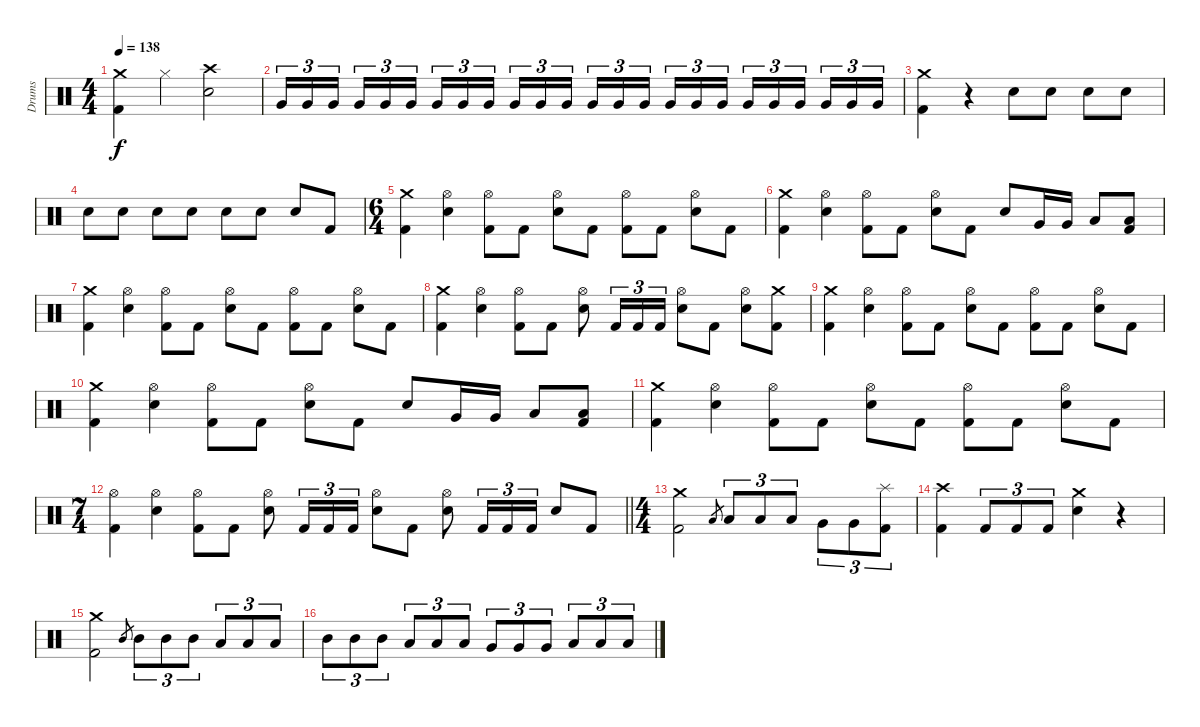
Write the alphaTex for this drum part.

\track ("Drums" "Drums") {instrument percussion}
\staff {score}
\articulation defaults
\ts (4 4)
\tempo 138
\clef neutral
\ks c
("Crash medium (hit)" "Kick (hit) 2").4{dy f} "Hi-Hat (closed)".4 ("Crash high (hit)" "Electric Snare (hit)").2 |
"Very Low Tom (hit)".16{tu (3 2)} "Very Low Tom (hit)".16{tu (3 2)} "Very Low Tom (hit)".16{tu (3 2) beam splitsecondary} "Very Low Tom (hit)".16{tu (3 2)} "Very Low Tom (hit)".16{tu (3 2)} "Very Low Tom (hit)".16{tu (3 2)} "Very Low Tom (hit)".16{tu (3 2)} "Very Low Tom (hit)".16{tu (3 2)} "Very Low Tom (hit)".16{tu (3 2) beam splitsecondary} "Very Low Tom (hit)".16{tu (3 2)} "Very Low Tom (hit)".16{tu (3 2)} "Very Low Tom (hit)".16{tu (3 2)} "Very Low Tom (hit)".16{tu (3 2)} "Very Low Tom (hit)".16{tu (3 2)} "Very Low Tom (hit)".16{tu (3 2) beam splitsecondary} "Very Low Tom (hit)".16{tu (3 2)} "Very Low Tom (hit)".16{tu (3 2)} "Very Low Tom (hit)".16{tu (3 2)} "Very Low Tom (hit)".16{tu (3 2)} "Very Low Tom (hit)".16{tu (3 2)} "Very Low Tom (hit)".16{tu (3 2) beam splitsecondary} "Very Low Tom (hit)".16{tu (3 2)} "Very Low Tom (hit)".16{tu (3 2)} "Very Low Tom (hit)".16{tu (3 2)} |
("Crash medium (hit)" "Kick (hit) 2").4 r.4 "Electric Snare (hit)".8 "Electric Snare (hit)".8 "Electric Snare (hit)".8 "Electric Snare (hit)".8 |
"Electric Snare (hit)".8 "Electric Snare (hit)".8 "Electric Snare (hit)".8 "Electric Snare (hit)".8 "Electric Snare (hit)".8 "Electric Snare (hit)".8 "Electric Snare (hit)".8 "Kick (hit) 2".8 |
\ts (6 4)
("Crash medium (hit)" "Kick (hit) 2").4 ("Hi-Hat (open)" "Electric Snare (hit)").4 ("Hi-Hat (open)" "Kick (hit) 2").8 "Kick (hit) 2".8 ("Hi-Hat (open)" "Electric Snare (hit)").8 "Kick (hit) 2".8 ("Hi-Hat (open)" "Kick (hit) 2").8 "Kick (hit) 2".8 ("Hi-Hat (open)" "Electric Snare (hit)").8 "Kick (hit) 2".8 |
("Crash medium (hit)" "Kick (hit) 2").4 ("Hi-Hat (open)" "Electric Snare (hit)").4 ("Hi-Hat (open)" "Kick (hit) 2").8 "Kick (hit) 2".8 ("Hi-Hat (open)" "Electric Snare (hit)").8 "Kick (hit) 2".8 "Electric Snare (hit)".8 "Very Low Tom (hit)".16 "Very Low Tom (hit)".16 "Low Floor Tom (hit)".8 ("Low Floor Tom (hit)" "Kick (hit) 2").8 |
("Crash medium (hit)" "Kick (hit) 2").4 ("Hi-Hat (open)" "Electric Snare (hit)").4 ("Hi-Hat (open)" "Kick (hit) 2").8 "Kick (hit) 2".8 ("Hi-Hat (open)" "Electric Snare (hit)").8 "Kick (hit) 2".8 ("Hi-Hat (open)" "Kick (hit) 2").8 "Kick (hit) 2".8 ("Hi-Hat (open)" "Electric Snare (hit)").8 "Kick (hit) 2".8 |
("Crash medium (hit)" "Kick (hit) 2").4 ("Hi-Hat (open)" "Electric Snare (hit)").4 ("Hi-Hat (open)" "Kick (hit) 2").8 "Kick (hit) 2".8 ("Hi-Hat (open)" "Electric Snare (hit)").8 "Kick (hit) 2".16{tu (3 2)} "Kick (hit) 2".16{tu (3 2)} "Kick (hit) 2".16{tu (3 2)} ("Hi-Hat (open)" "Electric Snare (hit)").8 "Kick (hit) 2".8 ("Hi-Hat (open)" "Electric Snare (hit)").8 ("Crash medium (hit)" "Kick (hit) 2").8 |
("Crash medium (hit)" "Kick (hit) 2").4 ("Hi-Hat (open)" "Electric Snare (hit)").4 ("Hi-Hat (open)" "Kick (hit) 2").8 "Kick (hit) 2".8 ("Hi-Hat (open)" "Electric Snare (hit)").8 "Kick (hit) 2".8 ("Hi-Hat (open)" "Kick (hit) 2").8 "Kick (hit) 2".8 ("Hi-Hat (open)" "Electric Snare (hit)").8 "Kick (hit) 2".8 |
("Crash medium (hit)" "Kick (hit) 2").4 ("Hi-Hat (open)" "Electric Snare (hit)").4 ("Hi-Hat (open)" "Kick (hit) 2").8 "Kick (hit) 2".8 ("Hi-Hat (open)" "Electric Snare (hit)").8 "Kick (hit) 2".8 "Electric Snare (hit)".8 "Very Low Tom (hit)".16 "Very Low Tom (hit)".16 "Low Floor Tom (hit)".8 ("Low Floor Tom (hit)" "Kick (hit) 2").8 |
("Crash medium (hit)" "Kick (hit) 2").4 ("Hi-Hat (open)" "Electric Snare (hit)").4 ("Hi-Hat (open)" "Kick (hit) 2").8 "Kick (hit) 2".8 ("Hi-Hat (open)" "Electric Snare (hit)").8 "Kick (hit) 2".8 ("Hi-Hat (open)" "Kick (hit) 2").8 "Kick (hit) 2".8 ("Hi-Hat (open)" "Electric Snare (hit)").8 "Kick (hit) 2".8 |
\ts (7 4)
\barLineRight lightlight
("Hi-Hat (open)" "Kick (hit) 2").4 ("Hi-Hat (open)" "Electric Snare (hit)").4 ("Hi-Hat (open)" "Kick (hit) 2").8 "Kick (hit) 2".8 ("Hi-Hat (open)" "Electric Snare (hit)").8 "Kick (hit) 2".16{tu (3 2)} "Kick (hit) 2".16{tu (3 2)} "Kick (hit) 2".16{tu (3 2)} ("Hi-Hat (open)" "Electric Snare (hit)").8 "Kick (hit) 2".8 ("Hi-Hat (open)" "Electric Snare (hit)").8 "Kick (hit) 2".16{tu (3 2)} "Kick (hit) 2".16{tu (3 2)} "Kick (hit) 2".16{tu (3 2)} "Electric Snare (hit)".8 "Kick (hit) 2".8 |
\ts (4 4)
("Crash medium (hit)" "Kick (hit) 2").2 "Low Tom (hit)".8{gr} "Low Tom (hit)".8{tu (3 2)} "Low Tom (hit)".8{tu (3 2)} "Low Tom (hit)".8{tu (3 2)} "Very Low Tom (hit)".8{tu (3 2)} "Very Low Tom (hit)".8{tu (3 2)} ("Splash (hit)" "Kick (hit) 2").8{tu (3 2)} |
("Crash high (hit)" "Kick (hit) 2").4 "Kick (hit) 2".8{tu (3 2)} "Kick (hit) 2".8{tu (3 2)} "Kick (hit) 2".8{tu (3 2)} ("Crash medium (hit)" "Electric Snare (hit)").4 r.4 |
("Crash medium (hit)" "Kick (hit) 2").2 "Mid Tom (hit)".8{gr} "Mid Tom (hit)".8{tu (3 2)} "Mid Tom (hit)".8{tu (3 2)} "Mid Tom (hit)".8{tu (3 2)} "Low Tom (hit)".8{tu (3 2)} "Low Tom (hit)".8{tu (3 2)} "Low Tom (hit)".8{tu (3 2)} |
"Mid Tom (hit)".8{tu (3 2)} "Mid Tom (hit)".8{tu (3 2)} "Mid Tom (hit)".8{tu (3 2)} "Low Tom (hit)".8{tu (3 2)} "Low Tom (hit)".8{tu (3 2)} "Low Tom (hit)".8{tu (3 2)} "Very Low Tom (hit)".8{tu (3 2)} "Very Low Tom (hit)".8{tu (3 2)} "Very Low Tom (hit)".8{tu (3 2)} "Low Floor Tom (hit)".8{tu (3 2)} "Low Floor Tom (hit)".8{tu (3 2)} "Low Floor Tom (hit)".8{tu (3 2)}
